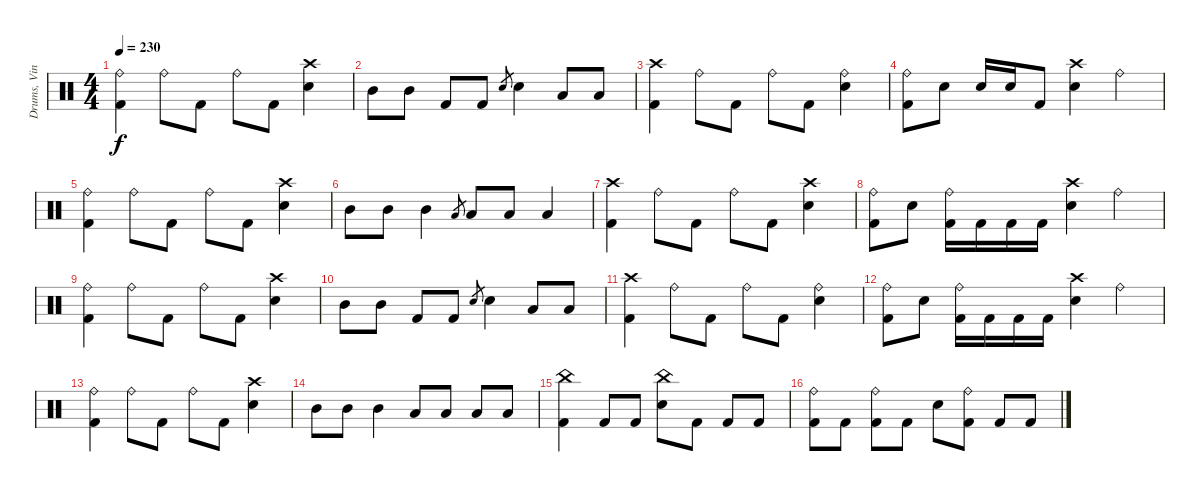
\track ("Drums, Vinnie" "Drums, Vin") {instrument percussion}
\staff {score}
\articulation defaults
\ts (4 4)
\tempo 230
\clef neutral
\ks c
("Ride (bell)" "Kick (hit) 2").4{dy f} "Ride (bell)".8 "Kick (hit) 2".8 "Ride (bell)".8 "Kick (hit) 2".8 ("Crash high (hit)" "Electric Snare (hit)").4 |
"Mid Tom (hit)".8 "Mid Tom (hit)".8 "Kick (hit) 2".8 "Kick (hit) 2".8 "Electric Snare (hit)".8{gr} "Electric Snare (hit)".4 "Low Tom (hit)".8 "Low Tom (hit)".8 |
("Crash high (hit)" "Kick (hit) 2").4 "Ride (bell)".8 "Kick (hit) 2".8 "Ride (bell)".8 "Kick (hit) 2".8 ("Ride (bell)" "Electric Snare (hit)").4 |
("Ride (bell)" "Kick (hit) 2").8 "Electric Snare (hit)".8 "Electric Snare (hit)".16 "Electric Snare (hit)".16 "Kick (hit) 2".8 ("Crash high (hit)" "Electric Snare (hit)").4 "Ride (bell)".4 |
("Ride (bell)" "Kick (hit) 2").4 "Ride (bell)".8 "Kick (hit) 2".8 "Ride (bell)".8 "Kick (hit) 2".8 ("Crash high (hit)" "Electric Snare (hit)").4 |
"Mid Tom (hit)".8 "Mid Tom (hit)".8 "Mid Tom (hit)".4 "Low Tom (hit)".8{gr} "Low Tom (hit)".8 "Low Tom (hit)".8 "Low Tom (hit)".4 |
("Crash high (hit)" "Kick (hit) 2").4 "Ride (bell)".8 "Kick (hit) 2".8 "Ride (bell)".8 "Kick (hit) 2".8 ("Crash high (hit)" "Electric Snare (hit)").4 |
("Ride (bell)" "Kick (hit) 2").8 "Electric Snare (hit)".8 ("Ride (bell)" "Kick (hit) 2").16 "Kick (hit) 2".16 "Kick (hit) 2".16 "Kick (hit) 2".16 ("Crash high (hit)" "Electric Snare (hit)").4 "Ride (bell)".4 |
("Ride (bell)" "Kick (hit) 2").4 "Ride (bell)".8 "Kick (hit) 2".8 "Ride (bell)".8 "Kick (hit) 2".8 ("Crash high (hit)" "Electric Snare (hit)").4 |
"Mid Tom (hit)".8 "Mid Tom (hit)".8 "Kick (hit) 2".8 "Kick (hit) 2".8 "Electric Snare (hit)".8{gr} "Electric Snare (hit)".4 "Low Tom (hit)".8 "Low Tom (hit)".8 |
("Crash high (hit)" "Kick (hit) 2").4 "Ride (bell)".8 "Kick (hit) 2".8 "Ride (bell)".8 "Kick (hit) 2".8 ("Ride (bell)" "Electric Snare (hit)").4 |
("Ride (bell)" "Kick (hit) 2").8 "Electric Snare (hit)".8 ("Ride (bell)" "Kick (hit) 2").16 "Kick (hit) 2".16 "Kick (hit) 2".16 "Kick (hit) 2".16 ("Crash high (hit)" "Electric Snare (hit)").4 "Ride (bell)".4 |
("Ride (bell)" "Kick (hit) 2").4 "Ride (bell)".8 "Kick (hit) 2".8 "Ride (bell)".8 "Kick (hit) 2".8 ("Crash high (hit)" "Electric Snare (hit)").4 |
"Mid Tom (hit)".8 "Mid Tom (hit)".8 "Mid Tom (hit)".4 "Low Tom (hit)".8 "Low Tom (hit)".8 "Low Tom (hit)".8 "Low Tom (hit)".8 |
("China (hit)" "Kick (hit) 2").4 "Kick (hit) 2".8 "Kick (hit) 2".8 ("China (hit)" "Electric Snare (hit)").8 "Kick (hit) 2".8 "Kick (hit) 2".8 "Kick (hit) 2".8 |
("Ride (bell)" "Kick (hit) 2").8 "Kick (hit) 2".8 ("Ride (bell)" "Kick (hit) 2").8 "Kick (hit) 2".8 "Electric Snare (hit)".8 ("Ride (bell)" "Kick (hit) 2").8 "Kick (hit) 2".8 "Kick (hit) 2".8
